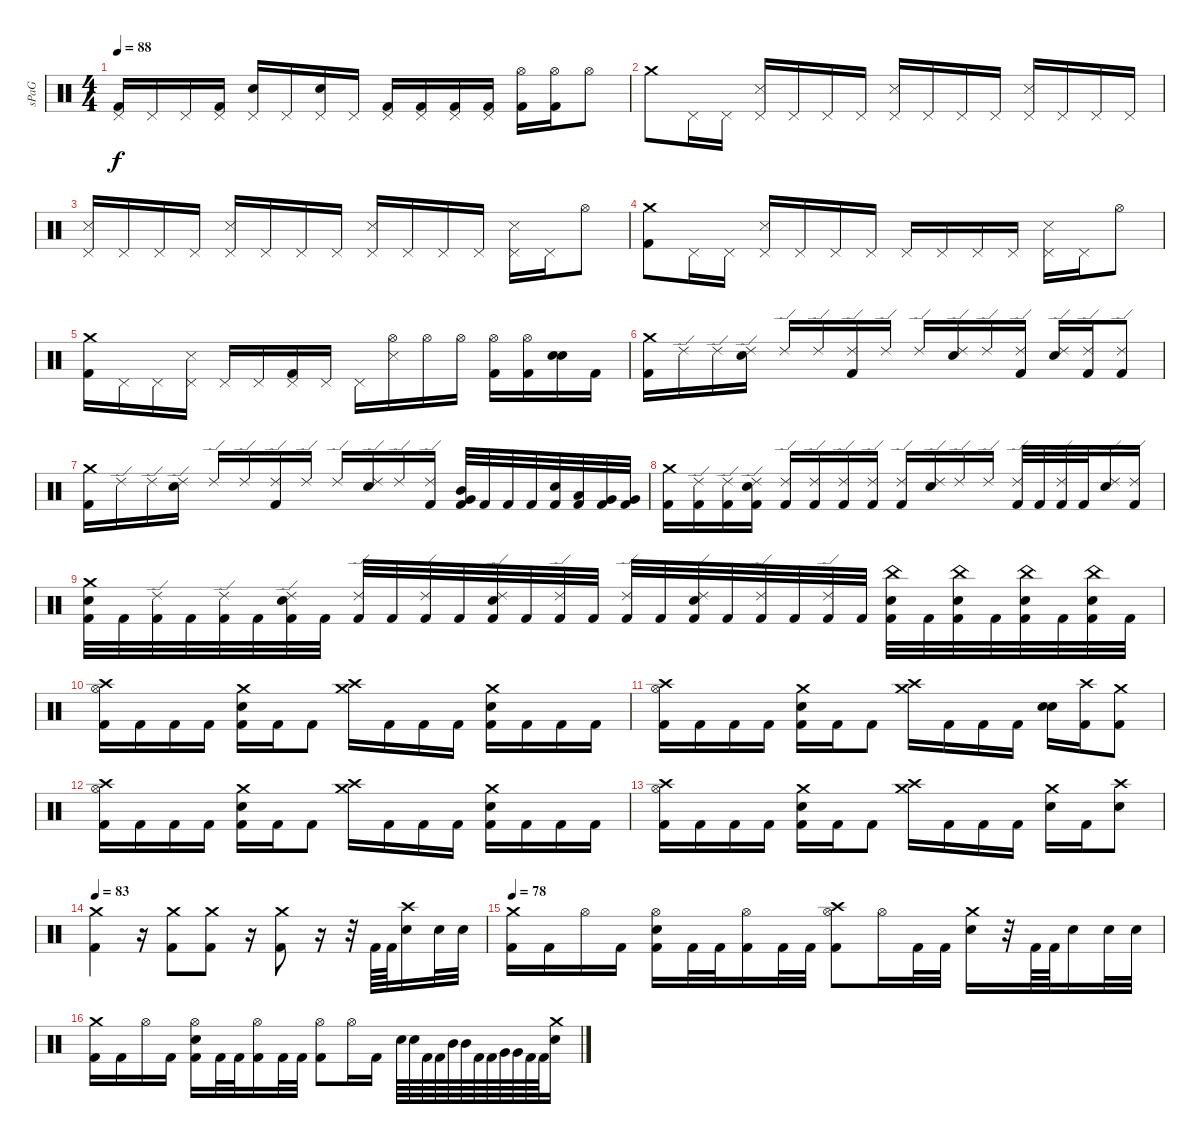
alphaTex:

\track ("sPaG" "sPaG") {instrument percussion}
\staff {score}
\articulation defaults
\ts (4 4)
\tempo 88
\clef neutral
\ks c
("Pedal Hi-Hat (hit)" "Kick (hit) 2").16{dy f} "Pedal Hi-Hat (hit)".16 "Pedal Hi-Hat (hit)".16 ("Pedal Hi-Hat (hit)" "Kick (hit) 2").16 ("Pedal Hi-Hat (hit)" "Snare (hit) 2").16 "Pedal Hi-Hat (hit)".16 ("Pedal Hi-Hat (hit)" "Snare (hit) 2").16 "Pedal Hi-Hat (hit)".16 ("Pedal Hi-Hat (hit)" "Kick (hit) 2").16 ("Pedal Hi-Hat (hit)" "Kick (hit) 2").16 ("Pedal Hi-Hat (hit)" "Kick (hit) 2").16 ("Pedal Hi-Hat (hit)" "Kick (hit) 2").16 ("Hi-Hat (open)" "Kick (hit) 2").16 ("Hi-Hat (open)" "Kick (hit) 2").16 "Hi-Hat (open)".8 |
"Crash medium (hit)".8 "Pedal Hi-Hat (hit)".16 "Pedal Hi-Hat (hit)".16 ("Pedal Hi-Hat (hit)" "Snare (side stick) 3").16 "Pedal Hi-Hat (hit)".16 "Pedal Hi-Hat (hit)".16 "Pedal Hi-Hat (hit)".16 ("Pedal Hi-Hat (hit)" "Snare (side stick) 3").16 "Pedal Hi-Hat (hit)".16 "Pedal Hi-Hat (hit)".16 "Pedal Hi-Hat (hit)".16 ("Pedal Hi-Hat (hit)" "Snare (side stick) 3").16 "Pedal Hi-Hat (hit)".16 "Pedal Hi-Hat (hit)".16 "Pedal Hi-Hat (hit)".16 |
("Pedal Hi-Hat (hit)" "Snare (side stick) 3").16 "Pedal Hi-Hat (hit)".16 "Pedal Hi-Hat (hit)".16 "Pedal Hi-Hat (hit)".16 ("Pedal Hi-Hat (hit)" "Snare (side stick) 3").16 "Pedal Hi-Hat (hit)".16 "Pedal Hi-Hat (hit)".16 "Pedal Hi-Hat (hit)".16 ("Pedal Hi-Hat (hit)" "Snare (side stick) 3").16 "Pedal Hi-Hat (hit)".16 "Pedal Hi-Hat (hit)".16 "Pedal Hi-Hat (hit)".16 ("Pedal Hi-Hat (hit)" "Snare (side stick) 3").16 "Pedal Hi-Hat (hit)".16 "Hi-Hat (open)".8 |
("Crash medium (hit)" "Kick (hit) 2").8 "Pedal Hi-Hat (hit)".16 "Pedal Hi-Hat (hit)".16 ("Pedal Hi-Hat (hit)" "Snare (side stick) 3").16 "Pedal Hi-Hat (hit)".16 "Pedal Hi-Hat (hit)".16 "Pedal Hi-Hat (hit)".16 "Pedal Hi-Hat (hit)".16 "Pedal Hi-Hat (hit)".16 "Pedal Hi-Hat (hit)".16 "Pedal Hi-Hat (hit)".16 ("Pedal Hi-Hat (hit)" "Snare (side stick) 3").16 "Pedal Hi-Hat (hit)".16 "Hi-Hat (open)".8 |
("Crash medium (hit)" "Kick (hit) 2").16 "Pedal Hi-Hat (hit)".16 "Pedal Hi-Hat (hit)".16 ("Pedal Hi-Hat (hit)" "Snare (side stick) 3").16 "Pedal Hi-Hat (hit)".16 "Pedal Hi-Hat (hit)".16 ("Pedal Hi-Hat (hit)" "Kick (hit) 2").16 "Pedal Hi-Hat (hit)".16 "Pedal Hi-Hat (hit)".16 ("Hi-Hat (open)" "Snare (side stick) 3").16 "Hi-Hat (open)".16 "Hi-Hat (open)".16 ("Hi-Hat (open)" "Kick (hit) 2").16 ("Hi-Hat (open)" "Kick (hit) 2").16 ("Snare (hit) 2" "Snare (hit) 2").16 "Kick (hit) 2".16 |
("Crash medium (hit)" "Kick (hit) 2").16 "Ride (edge) 2".16 "Ride (edge) 2".16 ("Ride (edge) 2" "Snare (hit) 2").16 "Ride (edge) 2".16 "Ride (edge) 2".16 ("Ride (edge) 2" "Kick (hit) 2").16 "Ride (edge) 2".16 "Ride (edge) 2".16 ("Ride (edge) 2" "Snare (hit) 2").16 "Ride (edge) 2".16 ("Ride (edge) 2" "Kick (hit) 2").16 ("Ride (edge) 2" "Snare (hit) 2").16 ("Ride (edge) 2" "Kick (hit) 2").16 ("Ride (edge) 2" "Kick (hit) 2").8 |
("Crash medium (hit)" "Kick (hit) 2").16 "Ride (edge) 2".16 "Ride (edge) 2".16 ("Ride (edge) 2" "Snare (hit) 2").16 "Ride (edge) 2".16 "Ride (edge) 2".16 ("Ride (edge) 2" "Kick (hit) 2").16 "Ride (edge) 2".16 "Ride (edge) 2".16 ("Ride (edge) 2" "Snare (hit) 2").16 "Ride (edge) 2".16 ("Ride (edge) 2" "Kick (hit) 2").16 ("Mid Tom (hit)" "Very Low Tom (hit)" "Kick (hit) 2").32 "Kick (hit) 2".32 "Kick (hit) 2".32 "Kick (hit) 2".32 ("Snare (hit) 2" "Kick (hit) 2").32 ("Low Tom (hit)" "Kick (hit) 2").32 ("Very Low Tom (hit)" "Kick (hit) 2").32 ("Very Low Tom (hit)" "Kick (hit) 2").32 |
("Crash medium (hit)" "Kick (hit) 2").16 ("Ride (edge) 2" "Kick (hit) 2").16 ("Ride (edge) 2" "Kick (hit) 2").16 ("Ride (edge) 2" "Snare (hit) 2" "Kick (hit) 2").16 ("Ride (edge) 2" "Kick (hit) 2").16 ("Ride (edge) 2" "Kick (hit) 2").16 ("Ride (edge) 2" "Kick (hit) 2").16 ("Ride (edge) 2" "Kick (hit) 2").16 ("Ride (edge) 2" "Kick (hit) 2").16 ("Ride (edge) 2" "Snare (hit) 2").16 "Ride (edge) 2".16 "Ride (edge) 2".16 ("Ride (edge) 2" "Kick (hit) 2").32 "Kick (hit) 2".32 ("Ride (edge) 2" "Kick (hit) 2").32 "Kick (hit) 2".32 ("Ride (edge) 2" "Snare (hit) 2").16 ("Ride (edge) 2" "Kick (hit) 2").16 |
("Crash medium (hit)" "Snare (hit) 2" "Kick (hit) 2").32 "Kick (hit) 2".32 ("Ride (edge) 2" "Kick (hit) 2").32 "Kick (hit) 2".32 ("Ride (edge) 2" "Kick (hit) 2").32 "Kick (hit) 2".32 ("Ride (edge) 2" "Snare (hit) 2" "Kick (hit) 2").32 "Kick (hit) 2".32 ("Ride (edge) 2" "Kick (hit) 2").32 "Kick (hit) 2".32 ("Ride (edge) 2" "Kick (hit) 2").32 "Kick (hit) 2".32 ("Ride (edge) 2" "Snare (hit) 2" "Kick (hit) 2").32 "Kick (hit) 2".32 ("Ride (edge) 2" "Kick (hit) 2").32 "Kick (hit) 2".32 ("Ride (edge) 2" "Kick (hit) 2").32 "Kick (hit) 2".32 ("Ride (edge) 2" "Snare (hit) 2" "Kick (hit) 2").32 "Kick (hit) 2".32 ("Ride (edge) 2" "Kick (hit) 2").32 "Kick (hit) 2".32 ("Ride (edge) 2" "Kick (hit) 2").32 "Kick (hit) 2".32 ("China (hit)" "Snare (hit) 2" "Kick (hit) 2").32 "Kick (hit) 2".32 ("China (hit)" "Snare (hit) 2" "Kick (hit) 2").32 "Kick (hit) 2".32 ("China (hit)" "Snare (hit) 2" "Kick (hit) 2").32 "Kick (hit) 2".32 ("China (hit)" "Snare (hit) 2" "Kick (hit) 2").32 "Kick (hit) 2".32 |
("Crash high (hit)" "Hi-Hat (open)" "Kick (hit) 2").16 "Kick (hit) 2".16 "Kick (hit) 2".16 "Kick (hit) 2".16 ("Crash medium (hit)" "Snare (hit) 2" "Kick (hit) 2").16 "Kick (hit) 2".16 "Kick (hit) 2".8 ("Crash high (hit)" "Crash medium (hit)").16 "Kick (hit) 2".16 "Kick (hit) 2".16 "Kick (hit) 2".16 ("Crash medium (hit)" "Snare (hit) 2" "Kick (hit) 2").16 "Kick (hit) 2".16 "Kick (hit) 2".16 "Kick (hit) 2".16 |
("Crash high (hit)" "Hi-Hat (open)" "Kick (hit) 2").16 "Kick (hit) 2".16 "Kick (hit) 2".16 "Kick (hit) 2".16 ("Crash medium (hit)" "Snare (hit) 2" "Kick (hit) 2").16 "Kick (hit) 2".16 "Kick (hit) 2".8 ("Crash high (hit)" "Crash medium (hit)").16 "Kick (hit) 2".16 "Kick (hit) 2".16 "Kick (hit) 2".16 ("Snare (hit) 2" "Snare (hit) 2").16 ("Crash high (hit)" "Kick (hit) 2").16 ("Crash medium (hit)" "Kick (hit) 2").8 |
("Crash high (hit)" "Hi-Hat (open)" "Kick (hit) 2").16 "Kick (hit) 2".16 "Kick (hit) 2".16 "Kick (hit) 2".16 ("Crash medium (hit)" "Snare (hit) 2" "Kick (hit) 2").16 "Kick (hit) 2".16 "Kick (hit) 2".8 ("Crash high (hit)" "Crash medium (hit)").16 "Kick (hit) 2".16 "Kick (hit) 2".16 "Kick (hit) 2".16 ("Crash medium (hit)" "Snare (hit) 2" "Kick (hit) 2").16 "Kick (hit) 2".16 "Kick (hit) 2".16 "Kick (hit) 2".16 |
("Crash high (hit)" "Hi-Hat (open)" "Kick (hit) 2").16 "Kick (hit) 2".16 "Kick (hit) 2".16 "Kick (hit) 2".16 ("Crash medium (hit)" "Snare (hit) 2" "Kick (hit) 2").16 "Kick (hit) 2".16 "Kick (hit) 2".8 ("Crash high (hit)" "Crash medium (hit)").16 "Kick (hit) 2".16 "Kick (hit) 2".16 "Kick (hit) 2".16 ("Crash medium (hit)" "Snare (hit) 2").16 "Kick (hit) 2".16 ("Crash high (hit)" "Snare (hit) 2").8 |
\tempo 83
("Crash medium (hit)" "Kick (hit) 2").4 r.16 ("Crash medium (hit)" "Kick (hit) 2").8 ("Crash medium (hit)" "Kick (hit) 2").8 r.16 ("Crash medium (hit)" "Kick (hit) 2").8 r.16 r.32 "Kick (hit) 2".64 "Kick (hit) 2".64 ("Crash high (hit)" "Snare (hit) 2").16 "Snare (hit) 2".32 "Snare (hit) 2".32 |
\tempo 78
("Crash medium (hit)" "Kick (hit) 2").16 "Kick (hit) 2".16 "Hi-Hat (open)".16 "Kick (hit) 2".16 ("Hi-Hat (open)" "Snare (hit) 2" "Kick (hit) 2").16 "Kick (hit) 2".32 "Kick (hit) 2".32 ("Hi-Hat (open)" "Kick (hit) 2").16 "Kick (hit) 2".32 "Kick (hit) 2".32 ("Crash high (hit)" "Hi-Hat (open)" "Kick (hit) 2").8 "Hi-Hat (open)".16 "Kick (hit) 2".32 "Kick (hit) 2".32 ("Crash medium (hit)" "Snare (hit) 2").16 r.32 "Kick (hit) 2".64 "Kick (hit) 2".64 "Snare (hit) 2".16 "Snare (hit) 2".32 "Snare (hit) 2".32 |
("Crash medium (hit)" "Kick (hit) 2").16 "Kick (hit) 2".16 "Hi-Hat (open)".16 "Kick (hit) 2".16 ("Hi-Hat (open)" "Snare (hit) 2" "Kick (hit) 2").16 "Kick (hit) 2".32 "Kick (hit) 2".32 ("Hi-Hat (open)" "Kick (hit) 2").16 "Kick (hit) 2".32 "Kick (hit) 2".32 ("Hi-Hat (open)" "Kick (hit) 2").8 "Hi-Hat (open)".16 "Kick (hit) 2".16 "Snare (hit) 2".64 "Snare (hit) 2".64 "Kick (hit) 2".64 "Kick (hit) 2".64 "Mid Tom (hit)".64 "Mid Tom (hit)".64 "Kick (hit) 2".64 "Kick (hit) 2".64 "Very Low Tom (hit)".64 "Very Low Tom (hit)".64 "Kick (hit) 2".64 "Kick (hit) 2".64 ("Crash medium (hit)" "Snare (hit) 2").16
